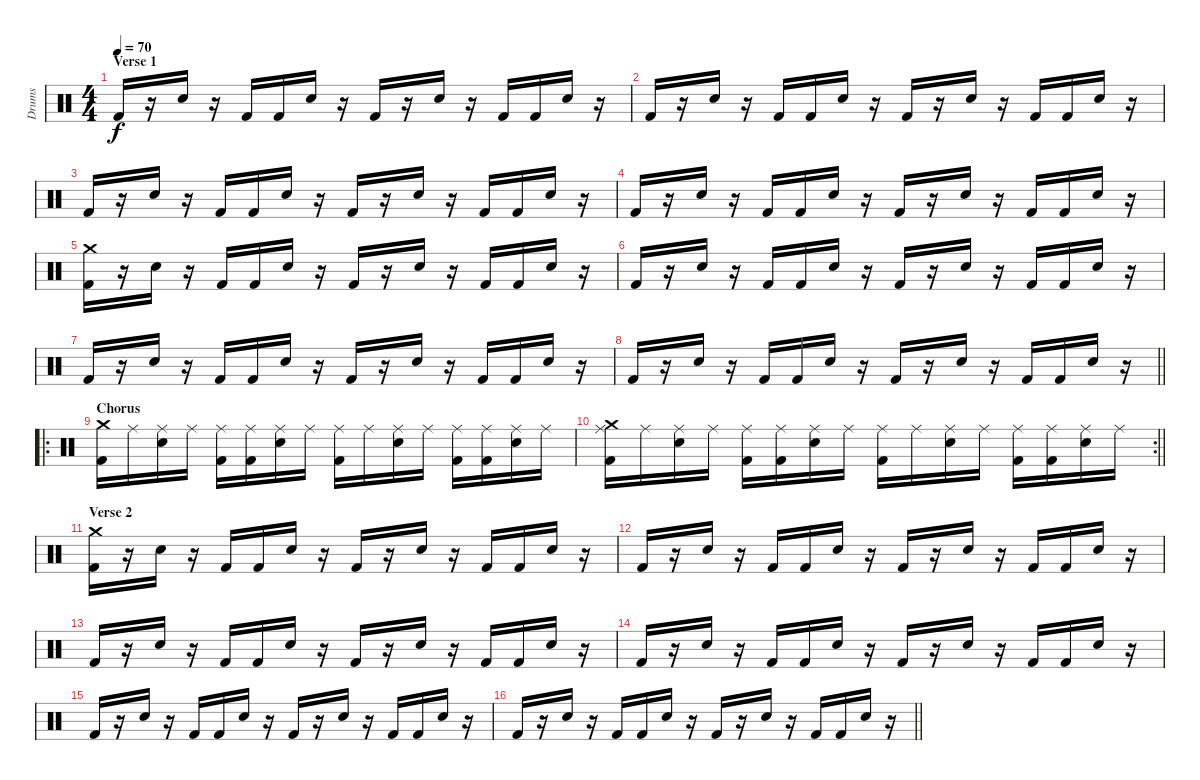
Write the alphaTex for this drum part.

\track ("Drums" "Drums") {instrument percussion}
\staff {score}
\articulation defaults
\ts (4 4)
\section ("" "Verse 1")
\tempo 70
\clef neutral
\ks c "Kick (hit) 2".16{dy f}
r.16 "Snare (hit) 2".16 r.16 "Kick (hit) 2".16 "Kick (hit) 2".16 "Snare (hit) 2".16 r.16 "Kick (hit) 2".16 r.16 "Snare (hit) 2".16 r.16 "Kick (hit) 2".16 "Kick (hit) 2".16 "Snare (hit) 2".16 r.16 |
"Kick (hit) 2".16 r.16 "Snare (hit) 2".16 r.16 "Kick (hit) 2".16 "Kick (hit) 2".16 "Snare (hit) 2".16 r.16 "Kick (hit) 2".16 r.16 "Snare (hit) 2".16 r.16 "Kick (hit) 2".16 "Kick (hit) 2".16 "Snare (hit) 2".16 r.16 |
"Kick (hit) 2".16 r.16 "Snare (hit) 2".16 r.16 "Kick (hit) 2".16 "Kick (hit) 2".16 "Snare (hit) 2".16 r.16 "Kick (hit) 2".16 r.16 "Snare (hit) 2".16 r.16 "Kick (hit) 2".16 "Kick (hit) 2".16 "Snare (hit) 2".16 r.16 |
"Kick (hit) 2".16 r.16 "Snare (hit) 2".16 r.16 "Kick (hit) 2".16 "Kick (hit) 2".16 "Snare (hit) 2".16 r.16 "Kick (hit) 2".16 r.16 "Snare (hit) 2".16 r.16 "Kick (hit) 2".16 "Kick (hit) 2".16 "Snare (hit) 2".16 r.16 |
("Kick (hit) 2" "Crash medium (hit)").16 r.16 "Snare (hit) 2".16 r.16 "Kick (hit) 2".16 "Kick (hit) 2".16 "Snare (hit) 2".16 r.16 "Kick (hit) 2".16 r.16 "Snare (hit) 2".16 r.16 "Kick (hit) 2".16 "Kick (hit) 2".16 "Snare (hit) 2".16 r.16 |
"Kick (hit) 2".16 r.16 "Snare (hit) 2".16 r.16 "Kick (hit) 2".16 "Kick (hit) 2".16 "Snare (hit) 2".16 r.16 "Kick (hit) 2".16 r.16 "Snare (hit) 2".16 r.16 "Kick (hit) 2".16 "Kick (hit) 2".16 "Snare (hit) 2".16 r.16 |
"Kick (hit) 2".16 r.16 "Snare (hit) 2".16 r.16 "Kick (hit) 2".16 "Kick (hit) 2".16 "Snare (hit) 2".16 r.16 "Kick (hit) 2".16 r.16 "Snare (hit) 2".16 r.16 "Kick (hit) 2".16 "Kick (hit) 2".16 "Snare (hit) 2".16 r.16 |
\barLineRight lightlight "Kick (hit) 2".16
r.16 "Snare (hit) 2".16 r.16 "Kick (hit) 2".16 "Kick (hit) 2".16 "Snare (hit) 2".16 r.16 "Kick (hit) 2".16 r.16 "Snare (hit) 2".16 r.16 "Kick (hit) 2".16 "Kick (hit) 2".16 "Snare (hit) 2".16 r.16 |
\ro
\section ("" "Chorus")
("Kick (hit) 2" "Crash medium (hit)").16 "Ride (middle)".16 ("Snare (hit) 2" "Ride (middle)").16 "Ride (middle)".16 ("Kick (hit) 2" "Ride (middle)").16 ("Kick (hit) 2" "Ride (middle)").16 ("Snare (hit) 2" "Ride (middle)").16 "Ride (middle)".16 ("Kick (hit) 2" "Ride (middle)").16 "Ride (middle)".16 ("Snare (hit) 2" "Ride (middle)").16 "Ride (middle)".16 ("Kick (hit) 2" "Ride (middle)").16 ("Kick (hit) 2" "Ride (middle)").16 ("Snare (hit) 2" "Ride (middle)").16 "Ride (middle)".16 |
\rc 2
\barLineRight lightlight
("Kick (hit) 2" "Crash medium (hit)" "Ride (middle)").16 "Ride (middle)".16 ("Snare (hit) 2" "Ride (middle)").16 "Ride (middle)".16 ("Kick (hit) 2" "Ride (middle)").16 ("Kick (hit) 2" "Ride (middle)").16 ("Snare (hit) 2" "Ride (middle)").16 "Ride (middle)".16 ("Kick (hit) 2" "Ride (middle)").16 "Ride (middle)".16 ("Snare (hit) 2" "Ride (middle)").16 "Ride (middle)".16 ("Kick (hit) 2" "Ride (middle)").16 ("Kick (hit) 2" "Ride (middle)").16 ("Snare (hit) 2" "Ride (middle)").16 "Ride (middle)".16 |
\section ("" "Verse 2")
("Kick (hit) 2" "Crash medium (hit)").16 r.16 "Snare (hit) 2".16 r.16 "Kick (hit) 2".16 "Kick (hit) 2".16 "Snare (hit) 2".16 r.16 "Kick (hit) 2".16 r.16 "Snare (hit) 2".16 r.16 "Kick (hit) 2".16 "Kick (hit) 2".16 "Snare (hit) 2".16 r.16 |
"Kick (hit) 2".16 r.16 "Snare (hit) 2".16 r.16 "Kick (hit) 2".16 "Kick (hit) 2".16 "Snare (hit) 2".16 r.16 "Kick (hit) 2".16 r.16 "Snare (hit) 2".16 r.16 "Kick (hit) 2".16 "Kick (hit) 2".16 "Snare (hit) 2".16 r.16 |
"Kick (hit) 2".16 r.16 "Snare (hit) 2".16 r.16 "Kick (hit) 2".16 "Kick (hit) 2".16 "Snare (hit) 2".16 r.16 "Kick (hit) 2".16 r.16 "Snare (hit) 2".16 r.16 "Kick (hit) 2".16 "Kick (hit) 2".16 "Snare (hit) 2".16 r.16 |
"Kick (hit) 2".16 r.16 "Snare (hit) 2".16 r.16 "Kick (hit) 2".16 "Kick (hit) 2".16 "Snare (hit) 2".16 r.16 "Kick (hit) 2".16 r.16 "Snare (hit) 2".16 r.16 "Kick (hit) 2".16 "Kick (hit) 2".16 "Snare (hit) 2".16 r.16 |
"Kick (hit) 2".16 r.16 "Snare (hit) 2".16 r.16 "Kick (hit) 2".16 "Kick (hit) 2".16 "Snare (hit) 2".16 r.16 "Kick (hit) 2".16 r.16 "Snare (hit) 2".16 r.16 "Kick (hit) 2".16 "Kick (hit) 2".16 "Snare (hit) 2".16 r.16 |
\barLineRight lightlight "Kick (hit) 2".16
r.16 "Snare (hit) 2".16 r.16 "Kick (hit) 2".16 "Kick (hit) 2".16 "Snare (hit) 2".16 r.16 "Kick (hit) 2".16 r.16 "Snare (hit) 2".16 r.16 "Kick (hit) 2".16 "Kick (hit) 2".16 "Snare (hit) 2".16 r.16
